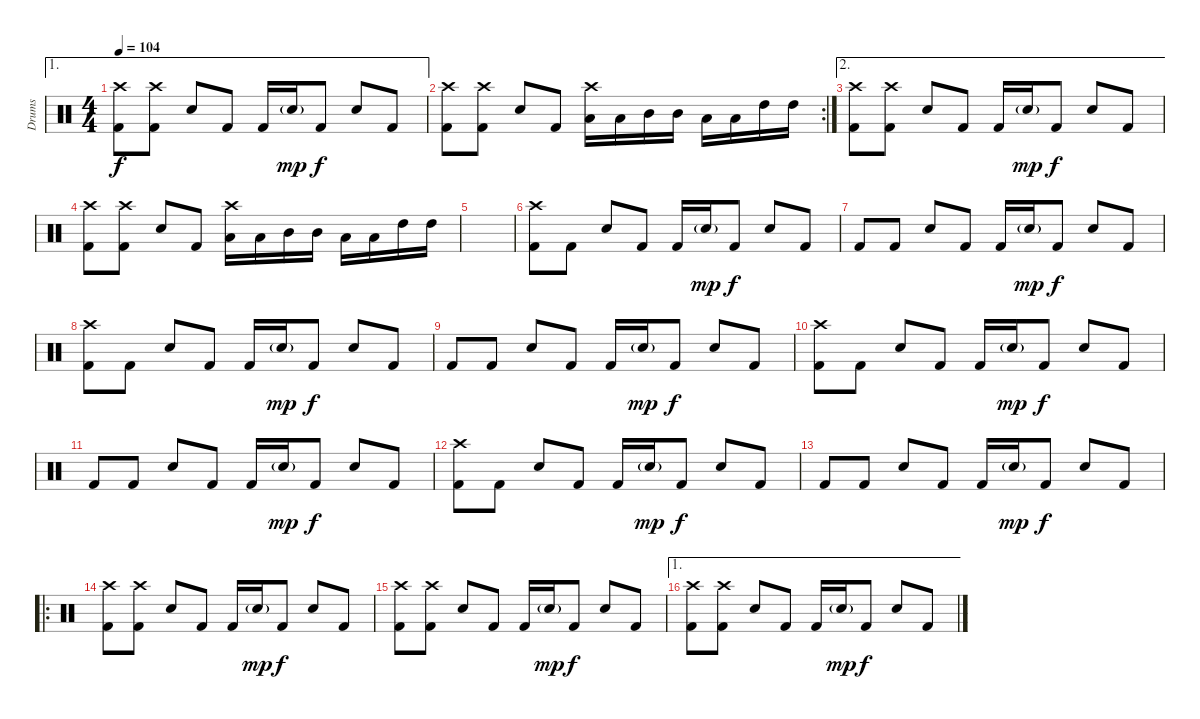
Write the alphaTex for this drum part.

\track ("Drums" "Drums") {instrument percussion}
\staff {score}
\articulation defaults
\ae 1
\ts (4 4)
\tempo 104
\clef neutral
\ks c
("Crash high (hit)" "Kick (hit) 2").8{dy f} ("Crash high (hit)" "Kick (hit) 2").8 "Snare (hit) 2".8 "Kick (hit) 2".8 "Kick (hit) 2".16 "Snare (hit) 2"{g}.16{dy mp} "Kick (hit) 2".8{dy f} "Snare (hit) 2".8 "Kick (hit) 2".8 |
\rc 2
("Crash high (hit)" "Kick (hit) 2").8 ("Crash high (hit)" "Kick (hit) 2").8 "Snare (hit) 2".8 "Kick (hit) 2".8 ("Crash high (hit)" "Low Tom (hit)").16 "Low Tom (hit)".16 "Mid Tom (hit)".16 "Mid Tom (hit)".16 "Low Tom (hit)".16 "Low Tom (hit)".16 "High Tom (hit)".16 "High Tom (hit)".16 |
\ae 2
("Crash high (hit)" "Kick (hit) 2").8 ("Crash high (hit)" "Kick (hit) 2").8 "Snare (hit) 2".8 "Kick (hit) 2".8 "Kick (hit) 2".16 "Snare (hit) 2"{g}.16{dy mp} "Kick (hit) 2".8{dy f} "Snare (hit) 2".8 "Kick (hit) 2".8 |
("Crash high (hit)" "Kick (hit) 2").8 ("Crash high (hit)" "Kick (hit) 2").8 "Snare (hit) 2".8 "Kick (hit) 2".8 ("Crash high (hit)" "Low Tom (hit)").16 "Low Tom (hit)".16 "Mid Tom (hit)".16 "Mid Tom (hit)".16 "Low Tom (hit)".16 "Low Tom (hit)".16 "High Tom (hit)".16 "High Tom (hit)".16 |
|
("Crash high (hit)" "Kick (hit) 2").8 "Kick (hit) 2".8 "Snare (hit) 2".8 "Kick (hit) 2".8 "Kick (hit) 2".16 "Snare (hit) 2"{g}.16{dy mp} "Kick (hit) 2".8{dy f} "Snare (hit) 2".8 "Kick (hit) 2".8 |
"Kick (hit) 2".8 "Kick (hit) 2".8 "Snare (hit) 2".8 "Kick (hit) 2".8 "Kick (hit) 2".16 "Snare (hit) 2"{g}.16{dy mp} "Kick (hit) 2".8{dy f} "Snare (hit) 2".8 "Kick (hit) 2".8 |
("Crash high (hit)" "Kick (hit) 2").8 "Kick (hit) 2".8 "Snare (hit) 2".8 "Kick (hit) 2".8 "Kick (hit) 2".16 "Snare (hit) 2"{g}.16{dy mp} "Kick (hit) 2".8{dy f} "Snare (hit) 2".8 "Kick (hit) 2".8 |
"Kick (hit) 2".8 "Kick (hit) 2".8 "Snare (hit) 2".8 "Kick (hit) 2".8 "Kick (hit) 2".16 "Snare (hit) 2"{g}.16{dy mp} "Kick (hit) 2".8{dy f} "Snare (hit) 2".8 "Kick (hit) 2".8 |
("Crash high (hit)" "Kick (hit) 2").8 "Kick (hit) 2".8 "Snare (hit) 2".8 "Kick (hit) 2".8 "Kick (hit) 2".16 "Snare (hit) 2"{g}.16{dy mp} "Kick (hit) 2".8{dy f} "Snare (hit) 2".8 "Kick (hit) 2".8 |
"Kick (hit) 2".8 "Kick (hit) 2".8 "Snare (hit) 2".8 "Kick (hit) 2".8 "Kick (hit) 2".16 "Snare (hit) 2"{g}.16{dy mp} "Kick (hit) 2".8{dy f} "Snare (hit) 2".8 "Kick (hit) 2".8 |
("Crash high (hit)" "Kick (hit) 2").8 "Kick (hit) 2".8 "Snare (hit) 2".8 "Kick (hit) 2".8 "Kick (hit) 2".16 "Snare (hit) 2"{g}.16{dy mp} "Kick (hit) 2".8{dy f} "Snare (hit) 2".8 "Kick (hit) 2".8 |
"Kick (hit) 2".8 "Kick (hit) 2".8 "Snare (hit) 2".8 "Kick (hit) 2".8 "Kick (hit) 2".16 "Snare (hit) 2"{g}.16{dy mp} "Kick (hit) 2".8{dy f} "Snare (hit) 2".8 "Kick (hit) 2".8 |
\ro
("Crash high (hit)" "Kick (hit) 2").8 ("Crash high (hit)" "Kick (hit) 2").8 "Snare (hit) 2".8 "Kick (hit) 2".8 "Kick (hit) 2".16 "Snare (hit) 2"{g}.16{dy mp} "Kick (hit) 2".8{dy f} "Snare (hit) 2".8 "Kick (hit) 2".8 |
("Crash high (hit)" "Kick (hit) 2").8 ("Crash high (hit)" "Kick (hit) 2").8 "Snare (hit) 2".8 "Kick (hit) 2".8 "Kick (hit) 2".16 "Snare (hit) 2"{g}.16{dy mp} "Kick (hit) 2".8{dy f} "Snare (hit) 2".8 "Kick (hit) 2".8 |
\ae 1
("Crash high (hit)" "Kick (hit) 2").8 ("Crash high (hit)" "Kick (hit) 2").8 "Snare (hit) 2".8 "Kick (hit) 2".8 "Kick (hit) 2".16 "Snare (hit) 2"{g}.16{dy mp} "Kick (hit) 2".8{dy f} "Snare (hit) 2".8 "Kick (hit) 2".8
